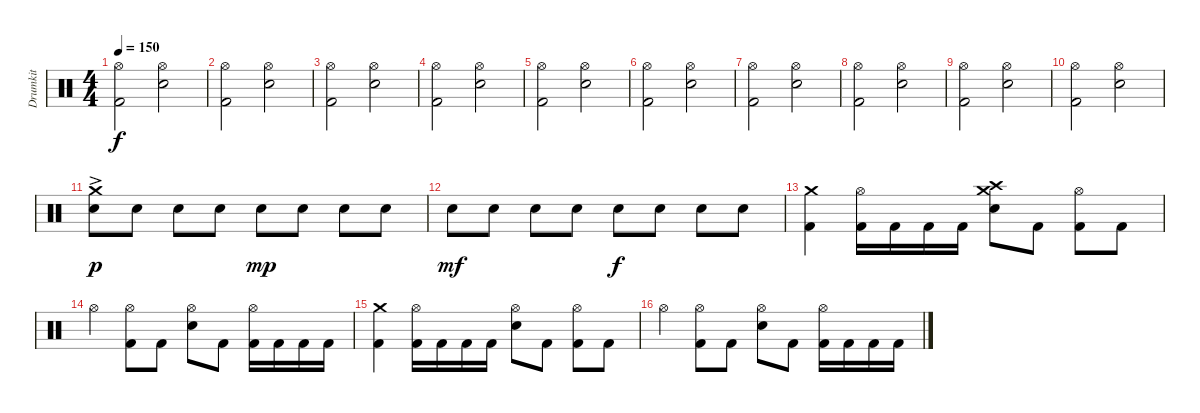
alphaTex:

\track ("Drumkit" "Drumkit") {instrument percussion}
\staff {score}
\articulation defaults
\ts (4 4)
\tempo 150
\clef neutral
\ks c
("Kick (hit) 2" "Hi-Hat (open)").2{dy f} ("Snare (hit) 2" "Hi-Hat (open)").2 |
("Kick (hit) 2" "Hi-Hat (open)").2 ("Snare (hit) 2" "Hi-Hat (open)").2 |
("Kick (hit) 2" "Hi-Hat (open)").2 ("Snare (hit) 2" "Hi-Hat (open)").2 |
("Kick (hit) 2" "Hi-Hat (open)").2 ("Snare (hit) 2" "Hi-Hat (open)").2 |
("Kick (hit) 2" "Hi-Hat (open)").2 ("Snare (hit) 2" "Hi-Hat (open)").2 |
("Kick (hit) 2" "Hi-Hat (open)").2 ("Snare (hit) 2" "Hi-Hat (open)").2 |
("Kick (hit) 2" "Hi-Hat (open)").2 ("Snare (hit) 2" "Hi-Hat (open)").2 |
("Kick (hit) 2" "Hi-Hat (open)").2 ("Snare (hit) 2" "Hi-Hat (open)").2 |
("Kick (hit) 2" "Hi-Hat (open)").2 ("Snare (hit) 2" "Hi-Hat (open)").2 |
("Kick (hit) 2" "Hi-Hat (open)").2 ("Snare (hit) 2" "Hi-Hat (open)").2 |
("Snare (hit) 2" "Crash medium (hit)"{ac}).8{dy p} "Snare (hit) 2".8 "Snare (hit) 2".8 "Snare (hit) 2".8 "Snare (hit) 2".8{dy mp} "Snare (hit) 2".8 "Snare (hit) 2".8 "Snare (hit) 2".8 |
"Snare (hit) 2".8{dy mf} "Snare (hit) 2".8 "Snare (hit) 2".8 "Snare (hit) 2".8 "Snare (hit) 2".8{dy f} "Snare (hit) 2".8 "Snare (hit) 2".8 "Snare (hit) 2".8 |
("Crash medium (hit)" "Kick (hit) 2").4 ("Kick (hit) 2" "Hi-Hat (open)").16 "Kick (hit) 2".16 "Kick (hit) 2".16 "Kick (hit) 2".16 ("Crash medium (hit)" "Crash high (hit)" "Snare (hit) 2").8 "Kick (hit) 2".8 ("Kick (hit) 2" "Hi-Hat (open)").8 "Kick (hit) 2".8 |
"Hi-Hat (open)".4 ("Hi-Hat (open)" "Kick (hit) 2").8 "Kick (hit) 2".8 ("Snare (hit) 2" "Hi-Hat (open)").8 "Kick (hit) 2".8 ("Kick (hit) 2" "Hi-Hat (open)").16 "Kick (hit) 2".16 "Kick (hit) 2".16 "Kick (hit) 2".16 |
("Crash medium (hit)" "Kick (hit) 2").4 ("Kick (hit) 2" "Hi-Hat (open)").16 "Kick (hit) 2".16 "Kick (hit) 2".16 "Kick (hit) 2".16 ("Snare (hit) 2" "Hi-Hat (open)").8 "Kick (hit) 2".8 ("Kick (hit) 2" "Hi-Hat (open)").8 "Kick (hit) 2".8 |
"Hi-Hat (open)".4 ("Hi-Hat (open)" "Kick (hit) 2").8 "Kick (hit) 2".8 ("Snare (hit) 2" "Hi-Hat (open)").8 "Kick (hit) 2".8 ("Kick (hit) 2" "Hi-Hat (open)").16 "Kick (hit) 2".16 "Kick (hit) 2".16 "Kick (hit) 2".16
